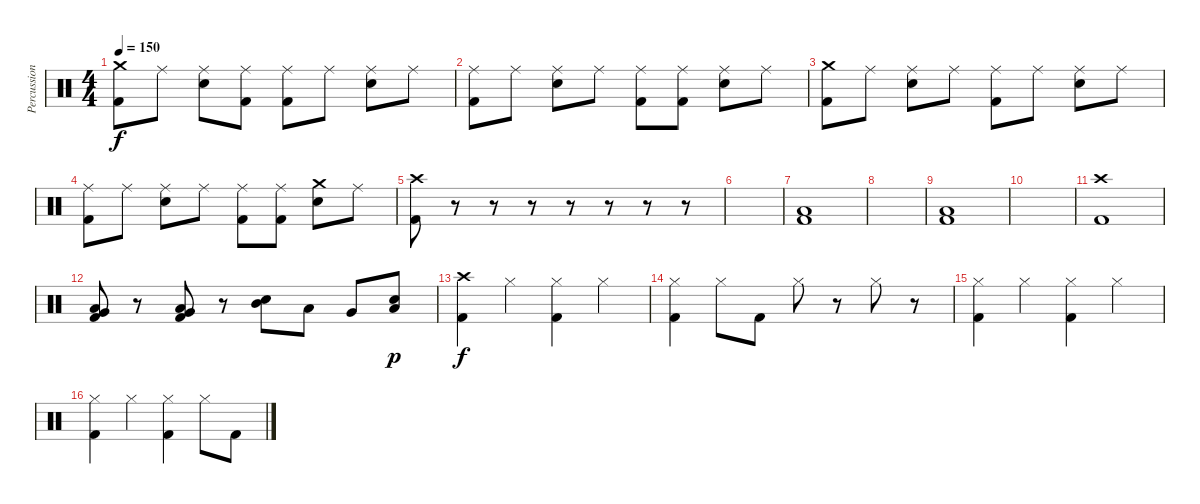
\track ("Percussion" "Percussion") {instrument percussion}
\staff {score}
\articulation defaults
\ts (4 4)
\tempo 150
\clef neutral
\ks c
("Crash medium (hit)" "Kick (hit) 2").8{dy f} "Ride (middle)".8 ("Ride (middle)" "Snare (hit) 2").8 ("Ride (middle)" "Kick (hit) 2").8 ("Ride (middle)" "Kick (hit) 2").8 "Ride (middle)".8 ("Ride (middle)" "Snare (hit) 2").8 "Ride (middle)".8 |
("Ride (middle)" "Kick (hit) 2").8 "Ride (middle)".8 ("Ride (middle)" "Snare (hit) 2").8 "Ride (middle)".8 ("Ride (middle)" "Kick (hit) 2").8 ("Ride (middle)" "Kick (hit) 2").8 ("Ride (middle)" "Snare (hit) 2").8 "Ride (middle)".8 |
("Crash medium (hit)" "Kick (hit) 2").8 "Ride (middle)".8 ("Ride (middle)" "Snare (hit) 2").8 "Ride (middle)".8 ("Ride (middle)" "Kick (hit) 2").8 "Ride (middle)".8 ("Ride (middle)" "Snare (hit) 2").8 "Ride (middle)".8 |
("Ride (middle)" "Kick (hit) 2").8 "Ride (middle)".8 ("Ride (middle)" "Snare (hit) 2").8 "Ride (middle)".8 ("Ride (middle)" "Kick (hit) 2").8 ("Ride (middle)" "Kick (hit) 2").8 ("Crash medium (hit)" "Snare (hit) 2").8 "Ride (middle)".8 |
("Crash high (hit)" "Kick (hit) 2").8 r.8 r.8 r.8 r.8 r.8 r.8 r.8 |
|
("Low Floor Tom (hit)" "Kick (hit) 2").1 |
|
("Low Floor Tom (hit)" "Kick (hit) 2").1 |
|
("Crash high (hit)" "Kick (hit) 2").1 |
("Very Low Tom (hit)" "Low Floor Tom (hit)" "Kick (hit) 2").8 r.8 ("Very Low Tom (hit)" "Low Floor Tom (hit)" "Kick (hit) 2").8 r.8 ("Mid Tom (hit)" "Snare (hit) 2").8 "Low Tom (hit)".8 "Very Low Tom (hit)".8 ("Low Floor Tom (hit)" "Snare (hit) 2").8{dy p} |
("Crash high (hit)" "Kick (hit) 2").4{dy f} "Hi-Hat (closed)".4 ("Hi-Hat (closed)" "Kick (hit) 2").4 "Hi-Hat (closed)".4 |
("Hi-Hat (closed)" "Kick (hit) 2").4 "Hi-Hat (closed)".8 "Kick (hit) 2".8 "Hi-Hat (closed)".8 r.8 "Hi-Hat (closed)".8 r.8 |
("Hi-Hat (closed)" "Kick (hit) 2").4 "Hi-Hat (closed)".4 ("Hi-Hat (closed)" "Kick (hit) 2").4 "Hi-Hat (closed)".4 |
("Hi-Hat (closed)" "Kick (hit) 2").4 "Hi-Hat (closed)".4 ("Hi-Hat (closed)" "Kick (hit) 2").4 "Hi-Hat (closed)".8 "Kick (hit) 2".8
